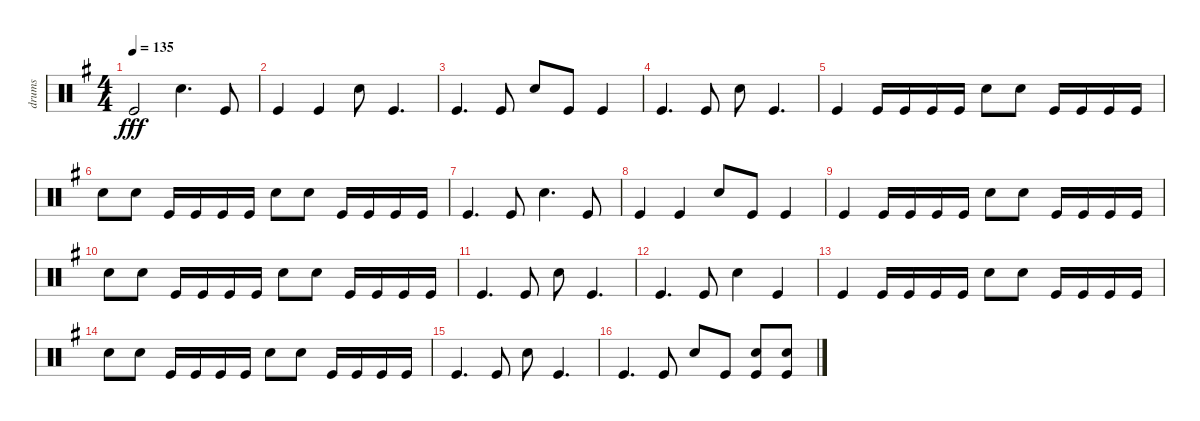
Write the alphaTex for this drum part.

\track ("drums" "drums") {instrument percussion}
\staff {score}
\articulation defaults
\ts (4 4)
\tempo 135
\clef neutral
\ks eminor "Kick (hit)".2{dy fff} "Electric Snare (hit)".4{d} "Kick (hit)".8
|
"Kick (hit)".4 "Kick (hit)".4 "Electric Snare (hit)".8 "Kick (hit)".4{d} |
"Kick (hit)".4{d} "Kick (hit)".8 "Electric Snare (hit)".8 "Kick (hit)".8 "Kick (hit)".4 |
"Kick (hit)".4{d} "Kick (hit)".8 "Electric Snare (hit)".8 "Kick (hit)".4{d} |
"Kick (hit)".4 "Kick (hit)".16 "Kick (hit)".16 "Kick (hit)".16 "Kick (hit)".16 "Electric Snare (hit)".8 "Electric Snare (hit)".8 "Kick (hit)".16 "Kick (hit)".16 "Kick (hit)".16 "Kick (hit)".16 |
"Electric Snare (hit)".8 "Electric Snare (hit)".8 "Kick (hit)".16 "Kick (hit)".16 "Kick (hit)".16 "Kick (hit)".16 "Electric Snare (hit)".8 "Electric Snare (hit)".8 "Kick (hit)".16 "Kick (hit)".16 "Kick (hit)".16 "Kick (hit)".16 |
"Kick (hit)".4{d} "Kick (hit)".8 "Electric Snare (hit)".4{d} "Kick (hit)".8 |
"Kick (hit)".4 "Kick (hit)".4 "Electric Snare (hit)".8 "Kick (hit)".8 "Kick (hit)".4 |
"Kick (hit)".4 "Kick (hit)".16 "Kick (hit)".16 "Kick (hit)".16 "Kick (hit)".16 "Electric Snare (hit)".8 "Electric Snare (hit)".8 "Kick (hit)".16 "Kick (hit)".16 "Kick (hit)".16 "Kick (hit)".16 |
"Electric Snare (hit)".8 "Electric Snare (hit)".8 "Kick (hit)".16 "Kick (hit)".16 "Kick (hit)".16 "Kick (hit)".16 "Electric Snare (hit)".8 "Electric Snare (hit)".8 "Kick (hit)".16 "Kick (hit)".16 "Kick (hit)".16 "Kick (hit)".16 |
"Kick (hit)".4{d} "Kick (hit)".8 "Electric Snare (hit)".8 "Kick (hit)".4{d} |
"Kick (hit)".4{d} "Kick (hit)".8 "Electric Snare (hit)".4 "Kick (hit)".4 |
"Kick (hit)".4 "Kick (hit)".16 "Kick (hit)".16 "Kick (hit)".16 "Kick (hit)".16 "Electric Snare (hit)".8 "Electric Snare (hit)".8 "Kick (hit)".16 "Kick (hit)".16 "Kick (hit)".16 "Kick (hit)".16 |
"Electric Snare (hit)".8 "Electric Snare (hit)".8 "Kick (hit)".16 "Kick (hit)".16 "Kick (hit)".16 "Kick (hit)".16 "Electric Snare (hit)".8 "Electric Snare (hit)".8 "Kick (hit)".16 "Kick (hit)".16 "Kick (hit)".16 "Kick (hit)".16 |
"Kick (hit)".4{d} "Kick (hit)".8 "Electric Snare (hit)".8 "Kick (hit)".4{d} |
"Kick (hit)".4{d} "Kick (hit)".8 "Electric Snare (hit)".8 "Kick (hit)".8 ("Electric Snare (hit)" "Kick (hit)").8 ("Electric Snare (hit)" "Kick (hit)").8
